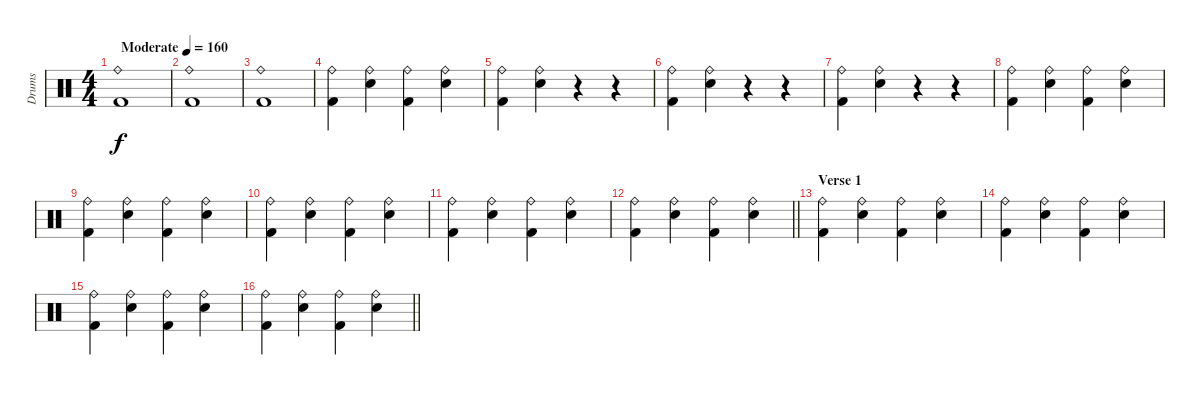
\track ("Drums" "Drums") {instrument percussion}
\staff {score}
\articulation defaults
\ts (4 4)
\tempo (160 "Moderate")
\clef neutral
\ks c
("Ride (bell)" "Kick (hit) 2").1{dy f} |
("Ride (bell)" "Kick (hit) 2").1 |
("Ride (bell)" "Kick (hit) 2").1 |
("Ride (bell)" "Kick (hit) 2").4 ("Ride (bell)" "Snare (hit) 2").4 ("Ride (bell)" "Kick (hit) 2").4 ("Ride (bell)" "Snare (hit) 2").4 |
("Ride (bell)" "Kick (hit) 2").4 ("Ride (bell)" "Snare (hit) 2").4 r.4 r.4 |
("Ride (bell)" "Kick (hit) 2").4 ("Ride (bell)" "Snare (hit) 2").4 r.4 r.4 |
("Ride (bell)" "Kick (hit) 2").4 ("Ride (bell)" "Snare (hit) 2").4 r.4 r.4 |
("Ride (bell)" "Kick (hit) 2").4 ("Ride (bell)" "Snare (hit) 2").4 ("Ride (bell)" "Kick (hit) 2").4 ("Ride (bell)" "Snare (hit) 2").4 |
("Ride (bell)" "Kick (hit) 2").4 ("Ride (bell)" "Snare (hit) 2").4 ("Ride (bell)" "Kick (hit) 2").4 ("Ride (bell)" "Snare (hit) 2").4 |
("Ride (bell)" "Kick (hit) 2").4 ("Ride (bell)" "Snare (hit) 2").4 ("Ride (bell)" "Kick (hit) 2").4 ("Ride (bell)" "Snare (hit) 2").4 |
("Ride (bell)" "Kick (hit) 2").4 ("Ride (bell)" "Snare (hit) 2").4 ("Ride (bell)" "Kick (hit) 2").4 ("Ride (bell)" "Snare (hit) 2").4 |
\barLineRight lightlight
("Ride (bell)" "Kick (hit) 2").4 ("Ride (bell)" "Snare (hit) 2").4 ("Ride (bell)" "Kick (hit) 2").4 ("Ride (bell)" "Snare (hit) 2").4 |
\section ("" "Verse 1")
("Ride (bell)" "Kick (hit) 2").4 ("Ride (bell)" "Snare (hit) 2").4 ("Ride (bell)" "Kick (hit) 2").4 ("Ride (bell)" "Snare (hit) 2").4 |
("Ride (bell)" "Kick (hit) 2").4 ("Ride (bell)" "Snare (hit) 2").4 ("Ride (bell)" "Kick (hit) 2").4 ("Ride (bell)" "Snare (hit) 2").4 |
("Ride (bell)" "Kick (hit) 2").4 ("Ride (bell)" "Snare (hit) 2").4 ("Ride (bell)" "Kick (hit) 2").4 ("Ride (bell)" "Snare (hit) 2").4 |
\barLineRight lightlight
("Ride (bell)" "Kick (hit) 2").4 ("Ride (bell)" "Snare (hit) 2").4 ("Ride (bell)" "Kick (hit) 2").4 ("Ride (bell)" "Snare (hit) 2").4
